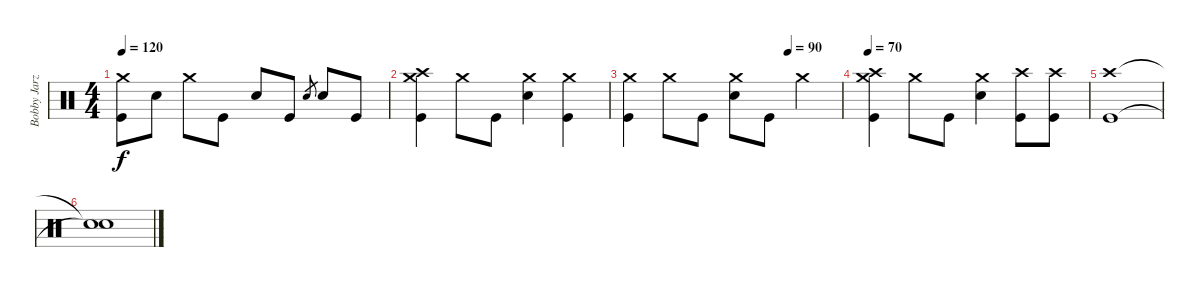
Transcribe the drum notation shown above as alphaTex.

\track ("Bobby Jarzombek" "Bobby Jarz") {instrument percussion}
\staff {score}
\articulation defaults
\ts (4 4)
\tempo 120
\clef neutral
\ks c
("Crash medium (hit)" "Kick (hit)").8{dy f} "Electric Snare (hit)".8 "Crash medium (hit)".8 "Kick (hit)".8 "Electric Snare (hit)".8 "Kick (hit)".8 "Electric Snare (hit)".8{gr} "Electric Snare (hit)".8 "Kick (hit)".8 |
("Crash high (hit)" "Crash medium (hit)" "Kick (hit)").4 "Crash medium (hit)".8 "Kick (hit)".8 ("Crash medium (hit)" "Electric Snare (hit)").4 ("Crash medium (hit)" "Kick (hit)").4 |
\tempo (90 0.75)
("Crash medium (hit)" "Kick (hit)").4 "Crash medium (hit)".8 "Kick (hit)".8 ("Crash medium (hit)" "Electric Snare (hit)").8 "Kick (hit)".8 "Crash medium (hit)".4 |
\tempo 70
("Crash high (hit)" "Crash medium (hit)" "Kick (hit)").4 "Crash medium (hit)".8 "Kick (hit)".8 ("Crash medium (hit)" "Electric Snare (hit)").4 ("Crash high (hit)" "Kick (hit)").8 ("Crash high (hit)" "Kick (hit)").8 |
("Crash high (hit)" "Kick (hit)").1 |
("Snare (hit)"{t} "Snare (hit)"{t}).1
